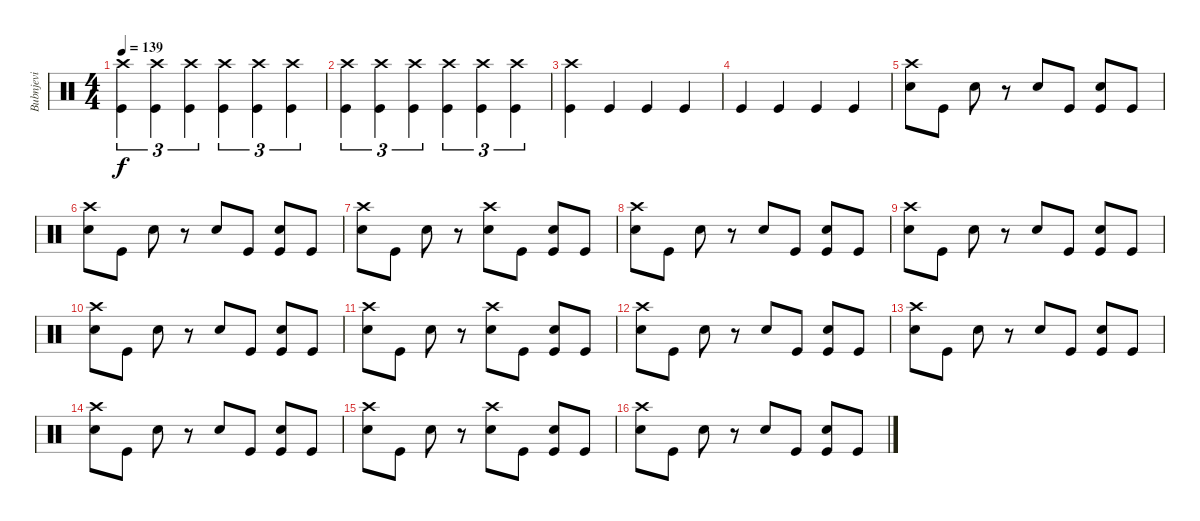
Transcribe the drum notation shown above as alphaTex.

\track ("Bubnjevi" "Bubnjevi") {instrument percussion}
\staff {score}
\articulation defaults
\ts (4 4)
\tempo 139
\clef neutral
\ks c
("Crash high (hit)" "Kick (hit)").4{tu (3 2) dy f} ("Crash high (hit)" "Kick (hit)").4{tu (3 2)} ("Crash high (hit)" "Kick (hit)").4{tu (3 2)} ("Crash high (hit)" "Kick (hit)").4{tu (3 2)} ("Crash high (hit)" "Kick (hit)").4{tu (3 2)} ("Crash high (hit)" "Kick (hit)").4{tu (3 2)} |
("Crash high (hit)" "Kick (hit)").4{tu (3 2)} ("Crash high (hit)" "Kick (hit)").4{tu (3 2)} ("Crash high (hit)" "Kick (hit)").4{tu (3 2)} ("Crash high (hit)" "Kick (hit)").4{tu (3 2)} ("Crash high (hit)" "Kick (hit)").4{tu (3 2)} ("Crash high (hit)" "Kick (hit)").4{tu (3 2)} |
("Crash high (hit)" "Kick (hit)").4 "Kick (hit)".4 "Kick (hit)".4 "Kick (hit)".4 |
"Kick (hit)".4 "Kick (hit)".4 "Kick (hit)".4 "Kick (hit)".4 |
("Crash high (hit)" "Snare (hit) 2").8 "Kick (hit)".8 "Snare (hit) 2".8 r.8 "Snare (hit) 2".8 "Kick (hit)".8 ("Snare (hit) 2" "Kick (hit)").8 "Kick (hit)".8 |
("Crash high (hit)" "Snare (hit) 2").8 "Kick (hit)".8 "Snare (hit) 2".8 r.8 "Snare (hit) 2".8 "Kick (hit)".8 ("Snare (hit) 2" "Kick (hit)").8 "Kick (hit)".8 |
("Crash high (hit)" "Snare (hit) 2").8 "Kick (hit)".8 "Snare (hit) 2".8 r.8 ("Crash high (hit)" "Snare (hit) 2").8 "Kick (hit)".8 ("Snare (hit) 2" "Kick (hit)").8 "Kick (hit)".8 |
("Crash high (hit)" "Snare (hit) 2").8 "Kick (hit)".8 "Snare (hit) 2".8 r.8 "Snare (hit) 2".8 "Kick (hit)".8 ("Snare (hit) 2" "Kick (hit)").8 "Kick (hit)".8 |
("Crash high (hit)" "Snare (hit) 2").8 "Kick (hit)".8 "Snare (hit) 2".8 r.8 "Snare (hit) 2".8 "Kick (hit)".8 ("Snare (hit) 2" "Kick (hit)").8 "Kick (hit)".8 |
("Crash high (hit)" "Snare (hit) 2").8 "Kick (hit)".8 "Snare (hit) 2".8 r.8 "Snare (hit) 2".8 "Kick (hit)".8 ("Snare (hit) 2" "Kick (hit)").8 "Kick (hit)".8 |
("Crash high (hit)" "Snare (hit) 2").8 "Kick (hit)".8 "Snare (hit) 2".8 r.8 ("Crash high (hit)" "Snare (hit) 2").8 "Kick (hit)".8 ("Snare (hit) 2" "Kick (hit)").8 "Kick (hit)".8 |
("Crash high (hit)" "Snare (hit) 2").8 "Kick (hit)".8 "Snare (hit) 2".8 r.8 "Snare (hit) 2".8 "Kick (hit)".8 ("Snare (hit) 2" "Kick (hit)").8 "Kick (hit)".8 |
("Crash high (hit)" "Snare (hit) 2").8 "Kick (hit)".8 "Snare (hit) 2".8 r.8 "Snare (hit) 2".8 "Kick (hit)".8 ("Snare (hit) 2" "Kick (hit)").8 "Kick (hit)".8 |
("Crash high (hit)" "Snare (hit) 2").8 "Kick (hit)".8 "Snare (hit) 2".8 r.8 "Snare (hit) 2".8 "Kick (hit)".8 ("Snare (hit) 2" "Kick (hit)").8 "Kick (hit)".8 |
("Crash high (hit)" "Snare (hit) 2").8 "Kick (hit)".8 "Snare (hit) 2".8 r.8 ("Crash high (hit)" "Snare (hit) 2").8 "Kick (hit)".8 ("Snare (hit) 2" "Kick (hit)").8 "Kick (hit)".8 |
("Crash high (hit)" "Snare (hit) 2").8 "Kick (hit)".8 "Snare (hit) 2".8 r.8 "Snare (hit) 2".8 "Kick (hit)".8 ("Snare (hit) 2" "Kick (hit)").8 "Kick (hit)".8
